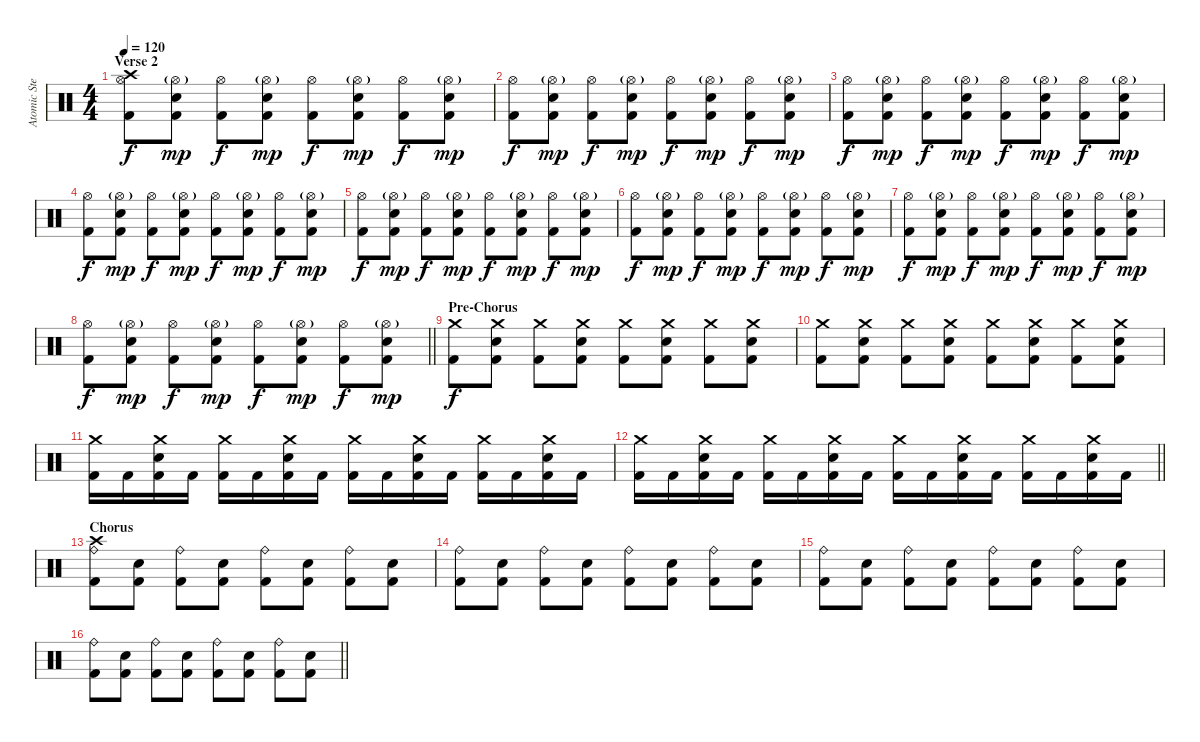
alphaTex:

\track ("Atomic Steif" "Atomic Ste") {instrument percussion}
\staff {score}
\articulation defaults
\ts (4 4)
\section ("" "Verse 2")
\tempo 120
\clef neutral
\ks c
("Crash high (hit)" "Hi-Hat (open)" "Kick (hit) 2").8{dy f} ("Hi-Hat (open)"{g} "Electric Snare (hit)" "Kick (hit) 2").8{dy mp} ("Hi-Hat (open)" "Kick (hit) 2").8{dy f} ("Hi-Hat (open)"{g} "Electric Snare (hit)" "Kick (hit) 2").8{dy mp} ("Hi-Hat (open)" "Kick (hit) 2").8{dy f} ("Hi-Hat (open)"{g} "Electric Snare (hit)" "Kick (hit) 2").8{dy mp} ("Hi-Hat (open)" "Kick (hit) 2").8{dy f} ("Hi-Hat (open)"{g} "Electric Snare (hit)" "Kick (hit) 2").8{dy mp} |
("Hi-Hat (open)" "Kick (hit) 2").8{dy f} ("Hi-Hat (open)"{g} "Electric Snare (hit)" "Kick (hit) 2").8{dy mp} ("Hi-Hat (open)" "Kick (hit) 2").8{dy f} ("Hi-Hat (open)"{g} "Electric Snare (hit)" "Kick (hit) 2").8{dy mp} ("Hi-Hat (open)" "Kick (hit) 2").8{dy f} ("Hi-Hat (open)"{g} "Electric Snare (hit)" "Kick (hit) 2").8{dy mp} ("Hi-Hat (open)" "Kick (hit) 2").8{dy f} ("Hi-Hat (open)"{g} "Electric Snare (hit)" "Kick (hit) 2").8{dy mp} |
("Hi-Hat (open)" "Kick (hit) 2").8{dy f} ("Hi-Hat (open)"{g} "Electric Snare (hit)" "Kick (hit) 2").8{dy mp} ("Hi-Hat (open)" "Kick (hit) 2").8{dy f} ("Hi-Hat (open)"{g} "Electric Snare (hit)" "Kick (hit) 2").8{dy mp} ("Hi-Hat (open)" "Kick (hit) 2").8{dy f} ("Hi-Hat (open)"{g} "Electric Snare (hit)" "Kick (hit) 2").8{dy mp} ("Hi-Hat (open)" "Kick (hit) 2").8{dy f} ("Hi-Hat (open)"{g} "Electric Snare (hit)" "Kick (hit) 2").8{dy mp} |
("Hi-Hat (open)" "Kick (hit) 2").8{dy f} ("Hi-Hat (open)"{g} "Electric Snare (hit)" "Kick (hit) 2").8{dy mp} ("Hi-Hat (open)" "Kick (hit) 2").8{dy f} ("Hi-Hat (open)"{g} "Electric Snare (hit)" "Kick (hit) 2").8{dy mp} ("Hi-Hat (open)" "Kick (hit) 2").8{dy f} ("Hi-Hat (open)"{g} "Electric Snare (hit)" "Kick (hit) 2").8{dy mp} ("Hi-Hat (open)" "Kick (hit) 2").8{dy f} ("Hi-Hat (open)"{g} "Electric Snare (hit)" "Kick (hit) 2").8{dy mp} |
("Hi-Hat (open)" "Kick (hit) 2").8{dy f} ("Hi-Hat (open)"{g} "Electric Snare (hit)" "Kick (hit) 2").8{dy mp} ("Hi-Hat (open)" "Kick (hit) 2").8{dy f} ("Hi-Hat (open)"{g} "Electric Snare (hit)" "Kick (hit) 2").8{dy mp} ("Hi-Hat (open)" "Kick (hit) 2").8{dy f} ("Hi-Hat (open)"{g} "Electric Snare (hit)" "Kick (hit) 2").8{dy mp} ("Hi-Hat (open)" "Kick (hit) 2").8{dy f} ("Hi-Hat (open)"{g} "Electric Snare (hit)" "Kick (hit) 2").8{dy mp} |
("Hi-Hat (open)" "Kick (hit) 2").8{dy f} ("Hi-Hat (open)"{g} "Electric Snare (hit)" "Kick (hit) 2").8{dy mp} ("Hi-Hat (open)" "Kick (hit) 2").8{dy f} ("Hi-Hat (open)"{g} "Electric Snare (hit)" "Kick (hit) 2").8{dy mp} ("Hi-Hat (open)" "Kick (hit) 2").8{dy f} ("Hi-Hat (open)"{g} "Electric Snare (hit)" "Kick (hit) 2").8{dy mp} ("Hi-Hat (open)" "Kick (hit) 2").8{dy f} ("Hi-Hat (open)"{g} "Electric Snare (hit)" "Kick (hit) 2").8{dy mp} |
("Hi-Hat (open)" "Kick (hit) 2").8{dy f} ("Hi-Hat (open)"{g} "Electric Snare (hit)" "Kick (hit) 2").8{dy mp} ("Hi-Hat (open)" "Kick (hit) 2").8{dy f} ("Hi-Hat (open)"{g} "Electric Snare (hit)" "Kick (hit) 2").8{dy mp} ("Hi-Hat (open)" "Kick (hit) 2").8{dy f} ("Hi-Hat (open)"{g} "Electric Snare (hit)" "Kick (hit) 2").8{dy mp} ("Hi-Hat (open)" "Kick (hit) 2").8{dy f} ("Hi-Hat (open)"{g} "Electric Snare (hit)" "Kick (hit) 2").8{dy mp} |
\barLineRight lightlight
("Hi-Hat (open)" "Kick (hit) 2").8{dy f} ("Hi-Hat (open)"{g} "Electric Snare (hit)" "Kick (hit) 2").8{dy mp} ("Hi-Hat (open)" "Kick (hit) 2").8{dy f} ("Hi-Hat (open)"{g} "Electric Snare (hit)" "Kick (hit) 2").8{dy mp} ("Hi-Hat (open)" "Kick (hit) 2").8{dy f} ("Hi-Hat (open)"{g} "Electric Snare (hit)" "Kick (hit) 2").8{dy mp} ("Hi-Hat (open)" "Kick (hit) 2").8{dy f} ("Hi-Hat (open)"{g} "Electric Snare (hit)" "Kick (hit) 2").8{dy mp} |
\section ("" "Pre-Chorus")
("Crash medium (hit)" "Kick (hit) 2").8{dy f} ("Crash medium (hit)" "Electric Snare (hit)" "Kick (hit) 2").8 ("Crash medium (hit)" "Kick (hit) 2").8 ("Crash medium (hit)" "Electric Snare (hit)" "Kick (hit) 2").8 ("Crash medium (hit)" "Kick (hit) 2").8 ("Crash medium (hit)" "Electric Snare (hit)" "Kick (hit) 2").8 ("Crash medium (hit)" "Kick (hit) 2").8 ("Crash medium (hit)" "Electric Snare (hit)" "Kick (hit) 2").8 |
("Crash medium (hit)" "Kick (hit) 2").8 ("Crash medium (hit)" "Electric Snare (hit)" "Kick (hit) 2").8 ("Crash medium (hit)" "Kick (hit) 2").8 ("Crash medium (hit)" "Electric Snare (hit)" "Kick (hit) 2").8 ("Crash medium (hit)" "Kick (hit) 2").8 ("Crash medium (hit)" "Electric Snare (hit)" "Kick (hit) 2").8 ("Crash medium (hit)" "Kick (hit) 2").8 ("Crash medium (hit)" "Electric Snare (hit)" "Kick (hit) 2").8 |
("Crash medium (hit)" "Kick (hit) 2").16 "Kick (hit) 2".16 ("Crash medium (hit)" "Electric Snare (hit)" "Kick (hit) 2").16 "Kick (hit) 2".16 ("Crash medium (hit)" "Kick (hit) 2").16 "Kick (hit) 2".16 ("Crash medium (hit)" "Electric Snare (hit)" "Kick (hit) 2").16 "Kick (hit) 2".16 ("Crash medium (hit)" "Kick (hit) 2").16 "Kick (hit) 2".16 ("Crash medium (hit)" "Electric Snare (hit)" "Kick (hit) 2").16 "Kick (hit) 2".16 ("Crash medium (hit)" "Kick (hit) 2").16 "Kick (hit) 2".16 ("Crash medium (hit)" "Electric Snare (hit)" "Kick (hit) 2").16 "Kick (hit) 2".16 |
\barLineRight lightlight
("Crash medium (hit)" "Kick (hit) 2").16 "Kick (hit) 2".16 ("Crash medium (hit)" "Electric Snare (hit)" "Kick (hit) 2").16 "Kick (hit) 2".16 ("Crash medium (hit)" "Kick (hit) 2").16 "Kick (hit) 2".16 ("Crash medium (hit)" "Electric Snare (hit)" "Kick (hit) 2").16 "Kick (hit) 2".16 ("Crash medium (hit)" "Kick (hit) 2").16 "Kick (hit) 2".16 ("Crash medium (hit)" "Electric Snare (hit)" "Kick (hit) 2").16 "Kick (hit) 2".16 ("Crash medium (hit)" "Kick (hit) 2").16 "Kick (hit) 2".16 ("Crash medium (hit)" "Electric Snare (hit)" "Kick (hit) 2").16 "Kick (hit) 2".16 |
\section ("" "Chorus")
("Crash high (hit)" "Ride (bell)" "Kick (hit) 2").8 ("Electric Snare (hit)" "Kick (hit) 2").8 ("Ride (bell)" "Kick (hit) 2").8 ("Electric Snare (hit)" "Kick (hit) 2").8 ("Ride (bell)" "Kick (hit) 2").8 ("Electric Snare (hit)" "Kick (hit) 2").8 ("Ride (bell)" "Kick (hit) 2").8 ("Electric Snare (hit)" "Kick (hit) 2").8 |
("Ride (bell)" "Kick (hit) 2").8 ("Electric Snare (hit)" "Kick (hit) 2").8 ("Ride (bell)" "Kick (hit) 2").8 ("Electric Snare (hit)" "Kick (hit) 2").8 ("Ride (bell)" "Kick (hit) 2").8 ("Electric Snare (hit)" "Kick (hit) 2").8 ("Ride (bell)" "Kick (hit) 2").8 ("Electric Snare (hit)" "Kick (hit) 2").8 |
("Ride (bell)" "Kick (hit) 2").8 ("Electric Snare (hit)" "Kick (hit) 2").8 ("Ride (bell)" "Kick (hit) 2").8 ("Electric Snare (hit)" "Kick (hit) 2").8 ("Ride (bell)" "Kick (hit) 2").8 ("Electric Snare (hit)" "Kick (hit) 2").8 ("Ride (bell)" "Kick (hit) 2").8 ("Electric Snare (hit)" "Kick (hit) 2").8 |
\barLineRight lightlight
("Ride (bell)" "Kick (hit) 2").8 ("Electric Snare (hit)" "Kick (hit) 2").8 ("Ride (bell)" "Kick (hit) 2").8 ("Electric Snare (hit)" "Kick (hit) 2").8 ("Ride (bell)" "Kick (hit) 2").8 ("Electric Snare (hit)" "Kick (hit) 2").8 ("Ride (bell)" "Kick (hit) 2").8 ("Electric Snare (hit)" "Kick (hit) 2").8
